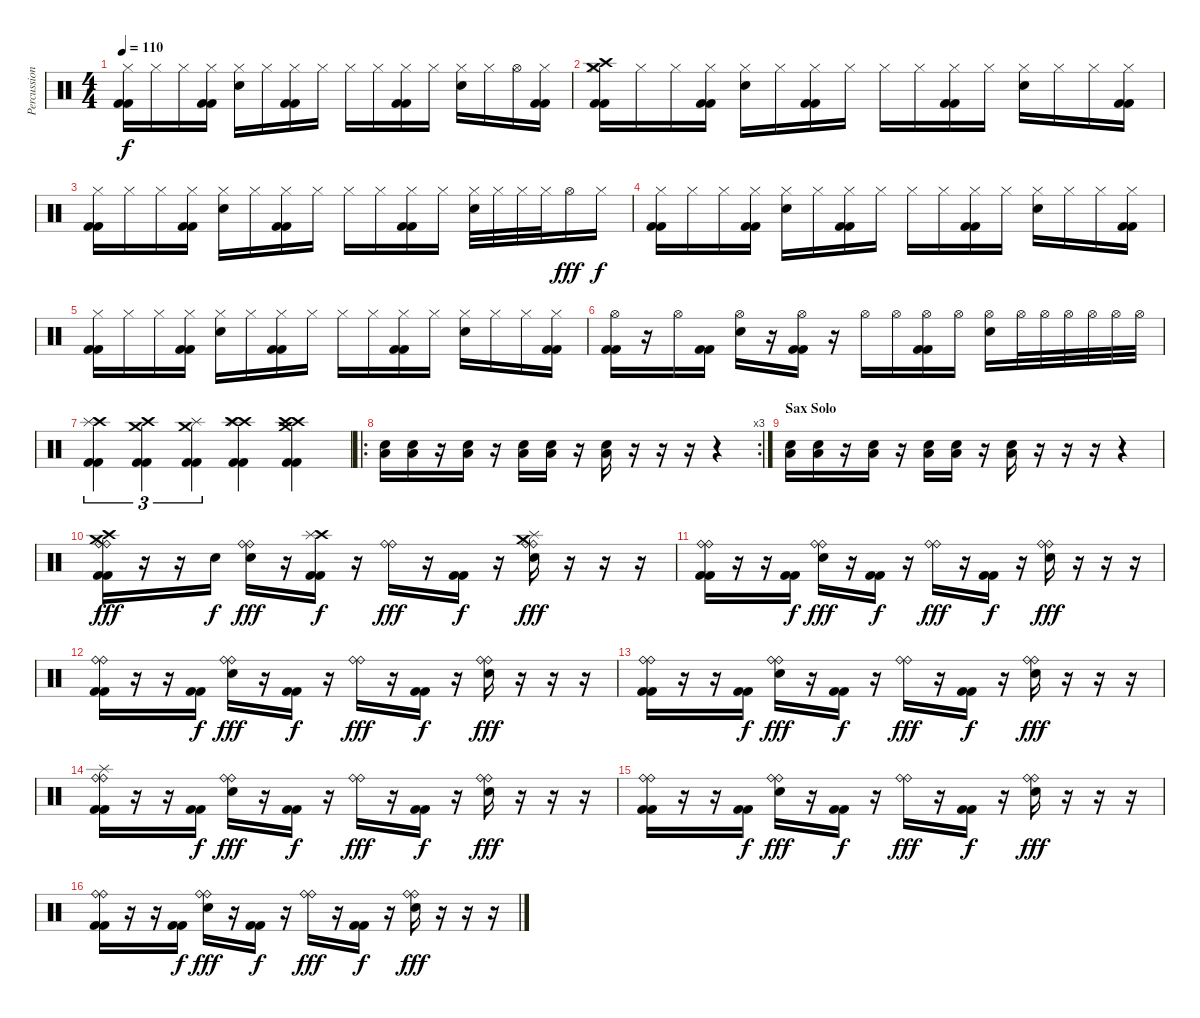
\track ("Percussion" "Percussion") {instrument percussion}
\staff {score}
\articulation defaults
\ts (4 4)
\tempo 110
\clef neutral
\ks c
("Hi-Hat (closed)" "Kick (hit) 2" "Kick (hit) 2").16{dy f} "Hi-Hat (closed)".16 "Hi-Hat (closed)".16 ("Hi-Hat (closed)" "Kick (hit) 2" "Kick (hit) 2").16 ("Hi-Hat (closed)" "Electric Snare (hit)").16 "Hi-Hat (closed)".16 ("Hi-Hat (closed)" "Kick (hit) 2" "Kick (hit) 2").16 "Hi-Hat (closed)".16 "Hi-Hat (closed)".16 "Hi-Hat (closed)".16 ("Hi-Hat (closed)" "Kick (hit) 2" "Kick (hit) 2").16 "Hi-Hat (closed)".16 ("Hi-Hat (closed)" "Electric Snare (hit)").16 "Hi-Hat (closed)".16 "Hi-Hat (open)".16 ("Hi-Hat (closed)" "Kick (hit) 2" "Kick (hit) 2").16 |
("Hi-Hat (closed)" "Crash high (hit)" "Crash medium (hit)" "Kick (hit) 2" "Kick (hit) 2").16 "Hi-Hat (closed)".16 "Hi-Hat (closed)".16 ("Hi-Hat (closed)" "Kick (hit) 2" "Kick (hit) 2").16 ("Hi-Hat (closed)" "Electric Snare (hit)").16 "Hi-Hat (closed)".16 ("Hi-Hat (closed)" "Kick (hit) 2" "Kick (hit) 2").16 "Hi-Hat (closed)".16 "Hi-Hat (closed)".16 "Hi-Hat (closed)".16 ("Hi-Hat (closed)" "Kick (hit) 2" "Kick (hit) 2").16 "Hi-Hat (closed)".16 ("Hi-Hat (closed)" "Electric Snare (hit)").16 "Hi-Hat (closed)".16 "Hi-Hat (closed)".16 ("Hi-Hat (closed)" "Kick (hit) 2" "Kick (hit) 2").16 |
("Hi-Hat (closed)" "Kick (hit) 2" "Kick (hit) 2").16 "Hi-Hat (closed)".16 "Hi-Hat (closed)".16 ("Hi-Hat (closed)" "Kick (hit) 2" "Kick (hit) 2").16 ("Hi-Hat (closed)" "Electric Snare (hit)").16 "Hi-Hat (closed)".16 ("Hi-Hat (closed)" "Kick (hit) 2" "Kick (hit) 2").16 "Hi-Hat (closed)".16 "Hi-Hat (closed)".16 "Hi-Hat (closed)".16 ("Hi-Hat (closed)" "Kick (hit) 2" "Kick (hit) 2").16 "Hi-Hat (closed)".16 ("Hi-Hat (closed)" "Electric Snare (hit)").32 "Hi-Hat (closed)".32 "Hi-Hat (closed)".32 "Hi-Hat (closed)".32 "Hi-Hat (open)".16{dy fff} "Hi-Hat (closed)".16{dy f} |
("Hi-Hat (closed)" "Kick (hit) 2" "Kick (hit) 2").16 "Hi-Hat (closed)".16 "Hi-Hat (closed)".16 ("Hi-Hat (closed)" "Kick (hit) 2" "Kick (hit) 2").16 ("Hi-Hat (closed)" "Electric Snare (hit)").16 "Hi-Hat (closed)".16 ("Hi-Hat (closed)" "Kick (hit) 2" "Kick (hit) 2").16 "Hi-Hat (closed)".16 "Hi-Hat (closed)".16 "Hi-Hat (closed)".16 ("Hi-Hat (closed)" "Kick (hit) 2" "Kick (hit) 2").16 "Hi-Hat (closed)".16 ("Hi-Hat (closed)" "Electric Snare (hit)").16 "Hi-Hat (closed)".16 "Hi-Hat (closed)".16 ("Hi-Hat (closed)" "Kick (hit) 2" "Kick (hit) 2").16 |
("Hi-Hat (closed)" "Kick (hit) 2" "Kick (hit) 2").16 "Hi-Hat (closed)".16 "Hi-Hat (closed)".16 ("Hi-Hat (closed)" "Kick (hit) 2" "Kick (hit) 2").16 ("Hi-Hat (closed)" "Electric Snare (hit)").16 "Hi-Hat (closed)".16 ("Hi-Hat (closed)" "Kick (hit) 2" "Kick (hit) 2").16 "Hi-Hat (closed)".16 "Hi-Hat (closed)".16 "Hi-Hat (closed)".16 ("Hi-Hat (closed)" "Kick (hit) 2" "Kick (hit) 2").16 "Hi-Hat (closed)".16 ("Hi-Hat (closed)" "Electric Snare (hit)").16 "Hi-Hat (closed)".16 "Hi-Hat (closed)".16 ("Hi-Hat (closed)" "Kick (hit) 2" "Kick (hit) 2").16 |
("Hi-Hat (open)" "Kick (hit) 2" "Kick (hit) 2").16 r.16 "Hi-Hat (open)".16 ("Kick (hit) 2" "Kick (hit) 2").16 ("Hi-Hat (open)" "Electric Snare (hit)").16 r.16 ("Hi-Hat (open)" "Kick (hit) 2" "Kick (hit) 2").16 r.16 "Hi-Hat (open)".16 "Hi-Hat (open)".16 ("Hi-Hat (open)" "Kick (hit) 2" "Kick (hit) 2").16 "Hi-Hat (open)".16 ("Hi-Hat (open)" "Electric Snare (hit)").16 "Hi-Hat (open)".32 "Hi-Hat (open)".32 "Hi-Hat (open)".32 "Hi-Hat (open)".32 "Hi-Hat (open)".32 "Hi-Hat (open)".32 |
("Crash high (hit)" "Splash (hit)" "Kick (hit) 2" "Kick (hit) 2").4{tu (3 2)} ("Crash medium (hit)" "Crash high (hit)" "Kick (hit) 2" "Kick (hit) 2").4{tu (3 2)} ("Splash (hit)" "Crash medium (hit)" "Kick (hit) 2" "Kick (hit) 2").4{tu (3 2)} ("Crash high (hit)" "Crash high (hit)" "Splash (hit)" "Kick (hit) 2" "Kick (hit) 2").4 ("Crash high (hit)" "Crash high (hit)" "Crash medium (hit)" "Kick (hit) 2" "Kick (hit) 2").4 |
\ro
\rc 3
("Low Tom (hit)" "Electric Snare (hit)").16 ("Low Tom (hit)" "Electric Snare (hit)").16 r.16 ("Low Tom (hit)" "Electric Snare (hit)").16 r.16 ("Low Tom (hit)" "Electric Snare (hit)").16 ("Low Tom (hit)" "Electric Snare (hit)").16 r.16 ("Low Tom (hit)" "Electric Snare (hit)").16 r.16 r.16 r.16 r.4 |
\section ("" "Sax Solo")
("Low Tom (hit)" "Electric Snare (hit)").16 ("Low Tom (hit)" "Electric Snare (hit)").16 r.16 ("Low Tom (hit)" "Electric Snare (hit)").16 r.16 ("Low Tom (hit)" "Electric Snare (hit)").16 ("Low Tom (hit)" "Electric Snare (hit)").16 r.16 ("Low Tom (hit)" "Electric Snare (hit)").16 r.16 r.16 r.16 r.4 |
("Ride (bell)" "Ride (bell)" "Crash high (hit)" "Crash medium (hit)" "Kick (hit) 2" "Kick (hit) 2").16{dy fff} r.16 r.16 "Electric Snare (hit)".16{dy f} ("Ride (bell)" "Ride (bell)" "Electric Snare (hit)").16{dy fff} r.16 ("Crash high (hit)" "Splash (hit)" "Kick (hit) 2" "Kick (hit) 2").16{dy f} r.16 ("Ride (bell)" "Ride (bell)").16{dy fff} r.16 ("Kick (hit) 2" "Kick (hit) 2").16{dy f} r.16 ("Ride (bell)" "Ride (bell)" "Crash medium (hit)" "Splash (hit)" "Electric Snare (hit)").16{dy fff} r.16 r.16 r.16 |
("Ride (bell)" "Ride (bell)" "Kick (hit) 2" "Kick (hit) 2").16 r.16 r.16 ("Kick (hit) 2" "Kick (hit) 2").16{dy f} ("Ride (bell)" "Ride (bell)" "Electric Snare (hit)").16{dy fff} r.16 ("Kick (hit) 2" "Kick (hit) 2").16{dy f} r.16 ("Ride (bell)" "Ride (bell)").16{dy fff} r.16 ("Kick (hit) 2" "Kick (hit) 2").16{dy f} r.16 ("Ride (bell)" "Ride (bell)" "Electric Snare (hit)").16{dy fff} r.16 r.16 r.16 |
("Ride (bell)" "Ride (bell)" "Kick (hit) 2" "Kick (hit) 2").16 r.16 r.16 ("Kick (hit) 2" "Kick (hit) 2").16{dy f} ("Ride (bell)" "Ride (bell)" "Electric Snare (hit)").16{dy fff} r.16 ("Kick (hit) 2" "Kick (hit) 2").16{dy f} r.16 ("Ride (bell)" "Ride (bell)").16{dy fff} r.16 ("Kick (hit) 2" "Kick (hit) 2").16{dy f} r.16 ("Ride (bell)" "Ride (bell)" "Electric Snare (hit)").16{dy fff} r.16 r.16 r.16 |
("Ride (bell)" "Ride (bell)" "Kick (hit) 2" "Kick (hit) 2").16 r.16 r.16 ("Kick (hit) 2" "Kick (hit) 2").16{dy f} ("Ride (bell)" "Ride (bell)" "Electric Snare (hit)").16{dy fff} r.16 ("Kick (hit) 2" "Kick (hit) 2").16{dy f} r.16 ("Ride (bell)" "Ride (bell)").16{dy fff} r.16 ("Kick (hit) 2" "Kick (hit) 2").16{dy f} r.16 ("Ride (bell)" "Ride (bell)" "Electric Snare (hit)").16{dy fff} r.16 r.16 r.16 |
("Ride (bell)" "Ride (bell)" "Splash (hit)" "Kick (hit) 2" "Kick (hit) 2").16 r.16 r.16 ("Kick (hit) 2" "Kick (hit) 2").16{dy f} ("Ride (bell)" "Ride (bell)" "Electric Snare (hit)").16{dy fff} r.16 ("Kick (hit) 2" "Kick (hit) 2").16{dy f} r.16 ("Ride (bell)" "Ride (bell)").16{dy fff} r.16 ("Kick (hit) 2" "Kick (hit) 2").16{dy f} r.16 ("Ride (bell)" "Ride (bell)" "Electric Snare (hit)").16{dy fff} r.16 r.16 r.16 |
("Ride (bell)" "Ride (bell)" "Kick (hit) 2" "Kick (hit) 2").16 r.16 r.16 ("Kick (hit) 2" "Kick (hit) 2").16{dy f} ("Ride (bell)" "Ride (bell)" "Electric Snare (hit)").16{dy fff} r.16 ("Kick (hit) 2" "Kick (hit) 2").16{dy f} r.16 ("Ride (bell)" "Ride (bell)").16{dy fff} r.16 ("Kick (hit) 2" "Kick (hit) 2").16{dy f} r.16 ("Ride (bell)" "Ride (bell)" "Electric Snare (hit)").16{dy fff} r.16 r.16 r.16 |
("Ride (bell)" "Ride (bell)" "Kick (hit) 2" "Kick (hit) 2").16 r.16 r.16 ("Kick (hit) 2" "Kick (hit) 2").16{dy f} ("Ride (bell)" "Ride (bell)" "Electric Snare (hit)").16{dy fff} r.16 ("Kick (hit) 2" "Kick (hit) 2").16{dy f} r.16 ("Ride (bell)" "Ride (bell)").16{dy fff} r.16 ("Kick (hit) 2" "Kick (hit) 2").16{dy f} r.16 ("Ride (bell)" "Ride (bell)" "Electric Snare (hit)").16{dy fff} r.16 r.16 r.16
